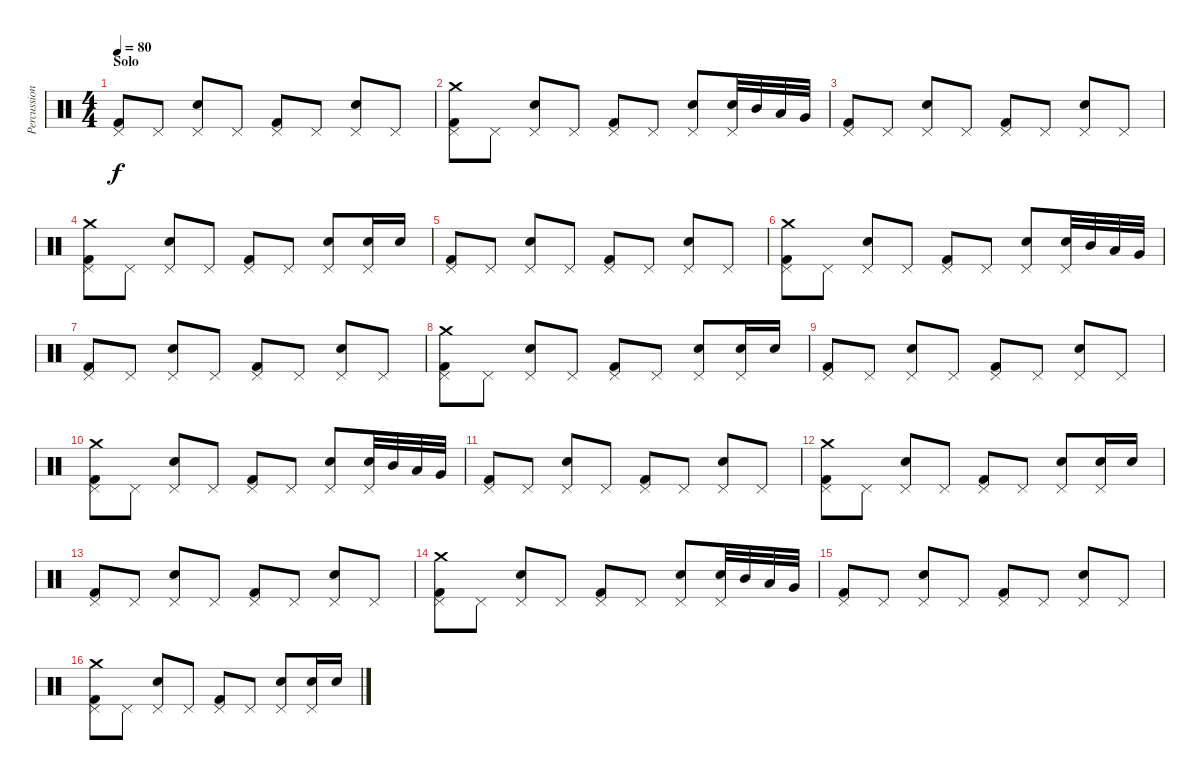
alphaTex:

\track ("Percussion" "Percussion") {instrument percussion}
\staff {score}
\articulation defaults
\ts (4 4)
\section ("" "Solo")
\tempo 80
\clef neutral
\ks c
("Kick (hit) 2" "Pedal Hi-Hat (hit)").8{dy f} "Pedal Hi-Hat (hit)".8 ("Pedal Hi-Hat (hit)" "Electric Snare (hit)").8 "Pedal Hi-Hat (hit)".8 ("Pedal Hi-Hat (hit)" "Kick (hit) 2").8 "Pedal Hi-Hat (hit)".8 ("Pedal Hi-Hat (hit)" "Electric Snare (hit)").8 "Pedal Hi-Hat (hit)".8 |
("Pedal Hi-Hat (hit)" "Kick (hit) 2" "Crash medium (hit)").8 "Pedal Hi-Hat (hit)".8 ("Electric Snare (hit)" "Pedal Hi-Hat (hit)").8 "Pedal Hi-Hat (hit)".8 ("Pedal Hi-Hat (hit)" "Kick (hit) 2").8 "Pedal Hi-Hat (hit)".8 ("Pedal Hi-Hat (hit)" "Electric Snare (hit)").8 ("Pedal Hi-Hat (hit)" "Electric Snare (hit)").32 "Mid Tom (hit)".32 "Low Tom (hit)".32 "Very Low Tom (hit)".32 |
("Pedal Hi-Hat (hit)" "Kick (hit) 2").8 "Pedal Hi-Hat (hit)".8 ("Pedal Hi-Hat (hit)" "Electric Snare (hit)").8 "Pedal Hi-Hat (hit)".8 ("Kick (hit) 2" "Pedal Hi-Hat (hit)").8 "Pedal Hi-Hat (hit)".8 ("Electric Snare (hit)" "Pedal Hi-Hat (hit)").8 "Pedal Hi-Hat (hit)".8 |
("Kick (hit) 2" "Pedal Hi-Hat (hit)" "Crash medium (hit)").8 "Pedal Hi-Hat (hit)".8 ("Electric Snare (hit)" "Pedal Hi-Hat (hit)").8 "Pedal Hi-Hat (hit)".8 ("Kick (hit) 2" "Pedal Hi-Hat (hit)").8 "Pedal Hi-Hat (hit)".8 ("Electric Snare (hit)" "Pedal Hi-Hat (hit)").8 ("Electric Snare (hit)" "Pedal Hi-Hat (hit)").16 "Electric Snare (hit)".16 |
("Kick (hit) 2" "Pedal Hi-Hat (hit)").8 "Pedal Hi-Hat (hit)".8 ("Pedal Hi-Hat (hit)" "Electric Snare (hit)").8 "Pedal Hi-Hat (hit)".8 ("Pedal Hi-Hat (hit)" "Kick (hit) 2").8 "Pedal Hi-Hat (hit)".8 ("Pedal Hi-Hat (hit)" "Electric Snare (hit)").8 "Pedal Hi-Hat (hit)".8 |
("Pedal Hi-Hat (hit)" "Kick (hit) 2" "Crash medium (hit)").8 "Pedal Hi-Hat (hit)".8 ("Electric Snare (hit)" "Pedal Hi-Hat (hit)").8 "Pedal Hi-Hat (hit)".8 ("Pedal Hi-Hat (hit)" "Kick (hit) 2").8 "Pedal Hi-Hat (hit)".8 ("Pedal Hi-Hat (hit)" "Electric Snare (hit)").8 ("Pedal Hi-Hat (hit)" "Electric Snare (hit)").32 "Mid Tom (hit)".32 "Low Tom (hit)".32 "Very Low Tom (hit)".32 |
("Pedal Hi-Hat (hit)" "Kick (hit) 2").8 "Pedal Hi-Hat (hit)".8 ("Pedal Hi-Hat (hit)" "Electric Snare (hit)").8 "Pedal Hi-Hat (hit)".8 ("Kick (hit) 2" "Pedal Hi-Hat (hit)").8 "Pedal Hi-Hat (hit)".8 ("Electric Snare (hit)" "Pedal Hi-Hat (hit)").8 "Pedal Hi-Hat (hit)".8 |
("Kick (hit) 2" "Pedal Hi-Hat (hit)" "Crash medium (hit)").8 "Pedal Hi-Hat (hit)".8 ("Electric Snare (hit)" "Pedal Hi-Hat (hit)").8 "Pedal Hi-Hat (hit)".8 ("Kick (hit) 2" "Pedal Hi-Hat (hit)").8 "Pedal Hi-Hat (hit)".8 ("Electric Snare (hit)" "Pedal Hi-Hat (hit)").8 ("Electric Snare (hit)" "Pedal Hi-Hat (hit)").16 "Electric Snare (hit)".16 |
("Kick (hit) 2" "Pedal Hi-Hat (hit)").8 "Pedal Hi-Hat (hit)".8 ("Pedal Hi-Hat (hit)" "Electric Snare (hit)").8 "Pedal Hi-Hat (hit)".8 ("Pedal Hi-Hat (hit)" "Kick (hit) 2").8 "Pedal Hi-Hat (hit)".8 ("Pedal Hi-Hat (hit)" "Electric Snare (hit)").8 "Pedal Hi-Hat (hit)".8 |
("Pedal Hi-Hat (hit)" "Kick (hit) 2" "Crash medium (hit)").8 "Pedal Hi-Hat (hit)".8 ("Electric Snare (hit)" "Pedal Hi-Hat (hit)").8 "Pedal Hi-Hat (hit)".8 ("Pedal Hi-Hat (hit)" "Kick (hit) 2").8 "Pedal Hi-Hat (hit)".8 ("Pedal Hi-Hat (hit)" "Electric Snare (hit)").8 ("Pedal Hi-Hat (hit)" "Electric Snare (hit)").32 "Mid Tom (hit)".32 "Low Tom (hit)".32 "Very Low Tom (hit)".32 |
("Pedal Hi-Hat (hit)" "Kick (hit) 2").8 "Pedal Hi-Hat (hit)".8 ("Pedal Hi-Hat (hit)" "Electric Snare (hit)").8 "Pedal Hi-Hat (hit)".8 ("Kick (hit) 2" "Pedal Hi-Hat (hit)").8 "Pedal Hi-Hat (hit)".8 ("Electric Snare (hit)" "Pedal Hi-Hat (hit)").8 "Pedal Hi-Hat (hit)".8 |
("Kick (hit) 2" "Pedal Hi-Hat (hit)" "Crash medium (hit)").8 "Pedal Hi-Hat (hit)".8 ("Electric Snare (hit)" "Pedal Hi-Hat (hit)").8 "Pedal Hi-Hat (hit)".8 ("Kick (hit) 2" "Pedal Hi-Hat (hit)").8 "Pedal Hi-Hat (hit)".8 ("Electric Snare (hit)" "Pedal Hi-Hat (hit)").8 ("Electric Snare (hit)" "Pedal Hi-Hat (hit)").16 "Electric Snare (hit)".16 |
("Kick (hit) 2" "Pedal Hi-Hat (hit)").8 "Pedal Hi-Hat (hit)".8 ("Pedal Hi-Hat (hit)" "Electric Snare (hit)").8 "Pedal Hi-Hat (hit)".8 ("Pedal Hi-Hat (hit)" "Kick (hit) 2").8 "Pedal Hi-Hat (hit)".8 ("Pedal Hi-Hat (hit)" "Electric Snare (hit)").8 "Pedal Hi-Hat (hit)".8 |
("Pedal Hi-Hat (hit)" "Kick (hit) 2" "Crash medium (hit)").8 "Pedal Hi-Hat (hit)".8 ("Electric Snare (hit)" "Pedal Hi-Hat (hit)").8 "Pedal Hi-Hat (hit)".8 ("Pedal Hi-Hat (hit)" "Kick (hit) 2").8 "Pedal Hi-Hat (hit)".8 ("Pedal Hi-Hat (hit)" "Electric Snare (hit)").8 ("Pedal Hi-Hat (hit)" "Electric Snare (hit)").32 "Mid Tom (hit)".32 "Low Tom (hit)".32 "Very Low Tom (hit)".32 |
("Pedal Hi-Hat (hit)" "Kick (hit) 2").8 "Pedal Hi-Hat (hit)".8 ("Pedal Hi-Hat (hit)" "Electric Snare (hit)").8 "Pedal Hi-Hat (hit)".8 ("Kick (hit) 2" "Pedal Hi-Hat (hit)").8 "Pedal Hi-Hat (hit)".8 ("Pedal Hi-Hat (hit)" "Electric Snare (hit)").8 "Pedal Hi-Hat (hit)".8 |
("Kick (hit) 2" "Crash medium (hit)" "Pedal Hi-Hat (hit)").8 "Pedal Hi-Hat (hit)".8 ("Electric Snare (hit)" "Pedal Hi-Hat (hit)").8 "Pedal Hi-Hat (hit)".8 ("Pedal Hi-Hat (hit)" "Kick (hit) 2").8 "Pedal Hi-Hat (hit)".8 ("Electric Snare (hit)" "Pedal Hi-Hat (hit)").8 ("Electric Snare (hit)" "Pedal Hi-Hat (hit)").16 "Electric Snare (hit)".16
